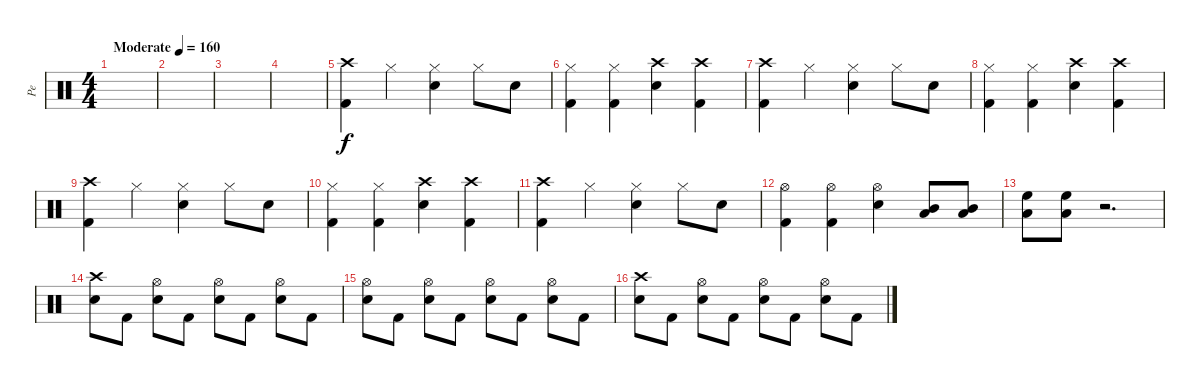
\track ("Pe" "Pe") {instrument percussion}
\staff {score}
\articulation defaults
\ts (4 4)
\tempo (160 "Moderate")
\clef neutral
\ks c
|
|
|
|
("Crash high (hit)" "Kick (hit) 2").4 "Hi-Hat (closed)".4 ("Hi-Hat (closed)" "Snare (hit) 2").4 "Hi-Hat (closed)".8 "Snare (hit) 2".8 |
("Hi-Hat (closed)" "Kick (hit) 2").4 ("Hi-Hat (closed)" "Kick (hit) 2").4 ("Crash high (hit)" "Snare (hit) 2").4 ("Crash high (hit)" "Kick (hit) 2").4 |
("Crash high (hit)" "Kick (hit) 2").4 "Hi-Hat (closed)".4 ("Hi-Hat (closed)" "Snare (hit) 2").4 "Hi-Hat (closed)".8 "Snare (hit) 2".8 |
("Hi-Hat (closed)" "Kick (hit) 2").4 ("Hi-Hat (closed)" "Kick (hit) 2").4 ("Crash high (hit)" "Snare (hit) 2").4 ("Crash high (hit)" "Kick (hit) 2").4 |
("Crash high (hit)" "Kick (hit) 2").4 "Hi-Hat (closed)".4 ("Hi-Hat (closed)" "Snare (hit) 2").4 "Hi-Hat (closed)".8 "Snare (hit) 2".8 |
("Hi-Hat (closed)" "Kick (hit) 2").4 ("Hi-Hat (closed)" "Kick (hit) 2").4 ("Crash high (hit)" "Snare (hit) 2").4 ("Crash high (hit)" "Kick (hit) 2").4 |
("Crash high (hit)" "Kick (hit) 2").4 "Hi-Hat (closed)".4 ("Hi-Hat (closed)" "Snare (hit) 2").4 "Hi-Hat (closed)".8 "Snare (hit) 2".8 |
("Hi-Hat (open)" "Kick (hit) 2").4 ("Hi-Hat (open)" "Kick (hit) 2").4 ("Hi-Hat (open)" "Snare (hit) 2").4 ("Mid Tom (hit)" "Low Tom (hit)").8 ("Mid Tom (hit)" "Low Tom (hit)").8 |
("High Floor Tom (hit)" "Low Tom (hit)").8 ("High Floor Tom (hit)" "Low Tom (hit)").8 r.2{d} |
("Crash high (hit)" "Snare (hit) 2").8 "Kick (hit) 2".8 ("Hi-Hat (open)" "Snare (hit) 2").8 "Kick (hit) 2".8 ("Hi-Hat (open)" "Snare (hit) 2").8 "Kick (hit) 2".8 ("Hi-Hat (open)" "Snare (hit) 2").8 "Kick (hit) 2".8 |
("Hi-Hat (open)" "Snare (hit) 2").8 "Kick (hit) 2".8 ("Hi-Hat (open)" "Snare (hit) 2").8 "Kick (hit) 2".8 ("Hi-Hat (open)" "Snare (hit) 2").8 "Kick (hit) 2".8 ("Hi-Hat (open)" "Snare (hit) 2").8 "Kick (hit) 2".8 |
("Crash high (hit)" "Snare (hit) 2").8 "Kick (hit) 2".8 ("Hi-Hat (open)" "Snare (hit) 2").8 "Kick (hit) 2".8 ("Hi-Hat (open)" "Snare (hit) 2").8 "Kick (hit) 2".8 ("Hi-Hat (open)" "Snare (hit) 2").8 "Kick (hit) 2".8
